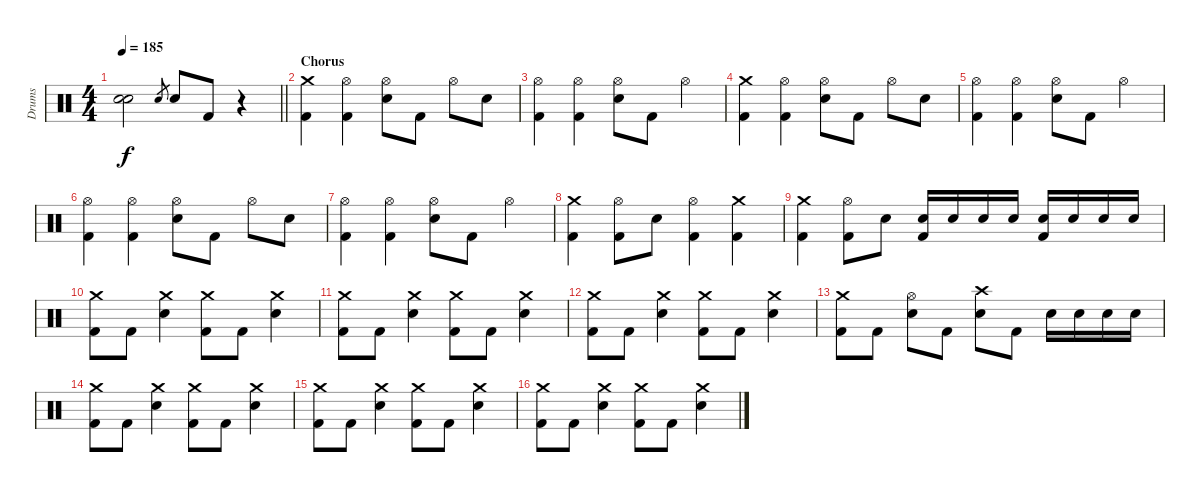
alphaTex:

\track ("Drums" "Drums") {instrument percussion}
\staff {score}
\articulation defaults
\ts (4 4)
\tempo 185
\clef neutral
\barLineRight lightlight
\ks c
("Snare (hit)"{t} "Snare (hit)"{t}).2{dy f} "Electric Snare (hit)".8{gr} "Electric Snare (hit)".8 "Kick (hit) 2".8 r.4 |
\section ("" "Chorus")
("Crash medium (hit)" "Kick (hit) 2").4 ("Hi-Hat (open)" "Kick (hit) 2").4 ("Hi-Hat (open)" "Electric Snare (hit)").8 "Kick (hit) 2".8 "Hi-Hat (open)".8 "Electric Snare (hit)".8 |
("Hi-Hat (open)" "Kick (hit) 2").4 ("Hi-Hat (open)" "Kick (hit) 2").4 ("Hi-Hat (open)" "Electric Snare (hit)").8 "Kick (hit) 2".8 "Hi-Hat (open)".4 |
("Crash medium (hit)" "Kick (hit) 2").4 ("Hi-Hat (open)" "Kick (hit) 2").4 ("Hi-Hat (open)" "Electric Snare (hit)").8 "Kick (hit) 2".8 "Hi-Hat (open)".8 "Electric Snare (hit)".8 |
("Hi-Hat (open)" "Kick (hit) 2").4 ("Hi-Hat (open)" "Kick (hit) 2").4 ("Hi-Hat (open)" "Electric Snare (hit)").8 "Kick (hit) 2".8 "Hi-Hat (open)".4 |
("Hi-Hat (open)" "Kick (hit) 2").4 ("Hi-Hat (open)" "Kick (hit) 2").4 ("Hi-Hat (open)" "Electric Snare (hit)").8 "Kick (hit) 2".8 "Hi-Hat (open)".8 "Electric Snare (hit)".8 |
("Hi-Hat (open)" "Kick (hit) 2").4 ("Hi-Hat (open)" "Kick (hit) 2").4 ("Hi-Hat (open)" "Electric Snare (hit)").8 "Kick (hit) 2".8 "Hi-Hat (open)".4 |
("Crash medium (hit)" "Kick (hit) 2").4 ("Hi-Hat (open)" "Kick (hit) 2").8 "Electric Snare (hit)".8 ("Hi-Hat (open)" "Kick (hit) 2").4 ("Crash medium (hit)" "Kick (hit) 2").4 |
("Crash medium (hit)" "Kick (hit) 2").4 ("Hi-Hat (open)" "Kick (hit) 2").8 "Electric Snare (hit)".8 ("Electric Snare (hit)" "Kick (hit) 2").16 "Electric Snare (hit)".16 "Electric Snare (hit)".16 "Electric Snare (hit)".16 ("Electric Snare (hit)" "Kick (hit) 2").16 "Electric Snare (hit)".16 "Electric Snare (hit)".16 "Electric Snare (hit)".16 |
("Crash medium (hit)" "Kick (hit) 2").8 "Kick (hit) 2".8 ("Crash medium (hit)" "Electric Snare (hit)").4 ("Crash medium (hit)" "Kick (hit) 2").8 "Kick (hit) 2".8 ("Crash medium (hit)" "Electric Snare (hit)").4 |
("Crash medium (hit)" "Kick (hit) 2").8 "Kick (hit) 2".8 ("Crash medium (hit)" "Electric Snare (hit)").4 ("Crash medium (hit)" "Kick (hit) 2").8 "Kick (hit) 2".8 ("Crash medium (hit)" "Electric Snare (hit)").4 |
("Crash medium (hit)" "Kick (hit) 2").8 "Kick (hit) 2".8 ("Crash medium (hit)" "Electric Snare (hit)").4 ("Crash medium (hit)" "Kick (hit) 2").8 "Kick (hit) 2".8 ("Crash medium (hit)" "Electric Snare (hit)").4 |
("Crash medium (hit)" "Kick (hit) 2").8 "Kick (hit) 2".8 ("Hi-Hat (open)" "Electric Snare (hit)").8 "Kick (hit) 2".8 ("Crash high (hit)" "Electric Snare (hit)").8 "Kick (hit) 2".8 "Electric Snare (hit)".16 "Electric Snare (hit)".16 "Electric Snare (hit)".16 "Electric Snare (hit)".16 |
("Crash medium (hit)" "Kick (hit) 2").8 "Kick (hit) 2".8 ("Crash medium (hit)" "Electric Snare (hit)").4 ("Crash medium (hit)" "Kick (hit) 2").8 "Kick (hit) 2".8 ("Crash medium (hit)" "Electric Snare (hit)").4 |
("Crash medium (hit)" "Kick (hit) 2").8 "Kick (hit) 2".8 ("Crash medium (hit)" "Electric Snare (hit)").4 ("Crash medium (hit)" "Kick (hit) 2").8 "Kick (hit) 2".8 ("Crash medium (hit)" "Electric Snare (hit)").4 |
("Crash medium (hit)" "Kick (hit) 2").8 "Kick (hit) 2".8 ("Crash medium (hit)" "Electric Snare (hit)").4 ("Crash medium (hit)" "Kick (hit) 2").8 "Kick (hit) 2".8 ("Crash medium (hit)" "Electric Snare (hit)").4
